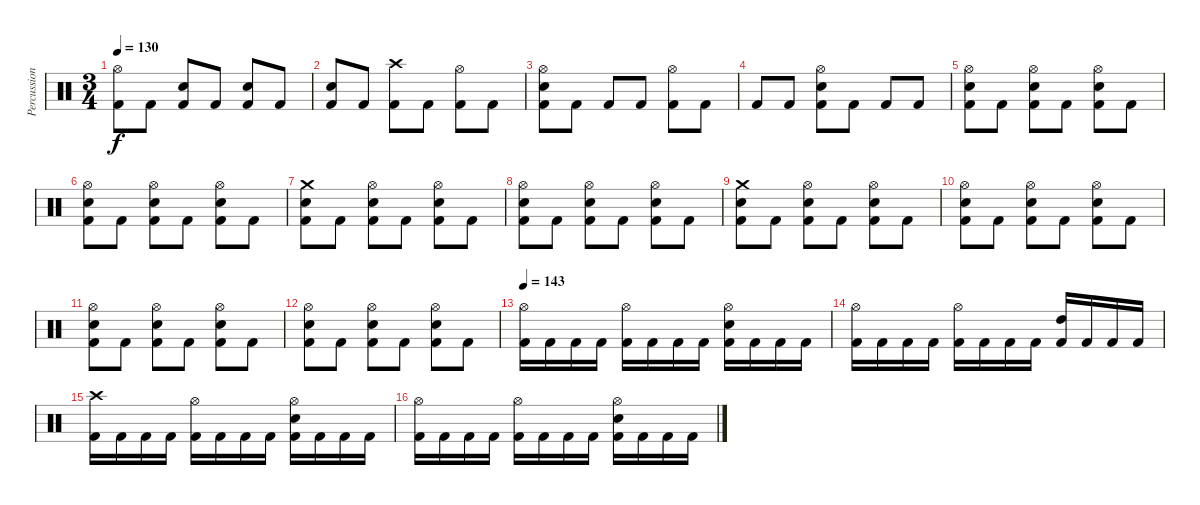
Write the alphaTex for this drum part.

\track ("Percussion" "Percussion") {instrument percussion}
\staff {score}
\articulation defaults
\ts (3 4)
\tempo 130
\clef neutral
\ks c
("Hi-Hat (open)" "Kick (hit) 2").8{dy f} "Kick (hit) 2".8 ("Snare (hit) 2" "Kick (hit) 2").8 "Kick (hit) 2".8 ("Snare (hit) 2" "Kick (hit) 2").8 "Kick (hit) 2".8 |
("Snare (hit) 2" "Kick (hit) 2").8 "Kick (hit) 2".8 ("Crash high (hit)" "Kick (hit) 2").8 "Kick (hit) 2".8 ("Hi-Hat (open)" "Kick (hit) 2").8 "Kick (hit) 2".8 |
("Hi-Hat (open)" "Snare (hit) 2" "Kick (hit) 2").8 "Kick (hit) 2".8 "Kick (hit) 2".8 "Kick (hit) 2".8 ("Hi-Hat (open)" "Kick (hit) 2").8 "Kick (hit) 2".8 |
"Kick (hit) 2".8 "Kick (hit) 2".8 ("Hi-Hat (open)" "Snare (hit) 2" "Kick (hit) 2").8 "Kick (hit) 2".8 "Kick (hit) 2".8 "Kick (hit) 2".8 |
("Hi-Hat (open)" "Snare (hit) 2" "Kick (hit) 2").8 "Kick (hit) 2".8 ("Hi-Hat (open)" "Snare (hit) 2" "Kick (hit) 2").8 "Kick (hit) 2".8 ("Hi-Hat (open)" "Snare (hit) 2" "Kick (hit) 2").8 "Kick (hit) 2".8 |
("Hi-Hat (open)" "Snare (hit) 2" "Kick (hit) 2").8 "Kick (hit) 2".8 ("Hi-Hat (open)" "Snare (hit) 2" "Kick (hit) 2").8 "Kick (hit) 2".8 ("Hi-Hat (open)" "Snare (hit) 2" "Kick (hit) 2").8 "Kick (hit) 2".8 |
("Crash medium (hit)" "Snare (hit) 2" "Kick (hit) 2").8 "Kick (hit) 2".8 ("Hi-Hat (open)" "Snare (hit) 2" "Kick (hit) 2").8 "Kick (hit) 2".8 ("Hi-Hat (open)" "Snare (hit) 2" "Kick (hit) 2").8 "Kick (hit) 2".8 |
("Hi-Hat (open)" "Snare (hit) 2" "Kick (hit) 2").8 "Kick (hit) 2".8 ("Hi-Hat (open)" "Snare (hit) 2" "Kick (hit) 2").8 "Kick (hit) 2".8 ("Hi-Hat (open)" "Snare (hit) 2" "Kick (hit) 2").8 "Kick (hit) 2".8 |
("Crash medium (hit)" "Snare (hit) 2" "Kick (hit) 2").8 "Kick (hit) 2".8 ("Hi-Hat (open)" "Snare (hit) 2" "Kick (hit) 2").8 "Kick (hit) 2".8 ("Hi-Hat (open)" "Snare (hit) 2" "Kick (hit) 2").8 "Kick (hit) 2".8 |
("Hi-Hat (open)" "Snare (hit) 2" "Kick (hit) 2").8 "Kick (hit) 2".8 ("Hi-Hat (open)" "Snare (hit) 2" "Kick (hit) 2").8 "Kick (hit) 2".8 ("Hi-Hat (open)" "Snare (hit) 2" "Kick (hit) 2").8 "Kick (hit) 2".8 |
("Hi-Hat (open)" "Snare (hit) 2" "Kick (hit) 2").8 "Kick (hit) 2".8 ("Hi-Hat (open)" "Snare (hit) 2" "Kick (hit) 2").8 "Kick (hit) 2".8 ("Hi-Hat (open)" "Snare (hit) 2" "Kick (hit) 2").8 "Kick (hit) 2".8 |
("Hi-Hat (open)" "Snare (hit) 2" "Kick (hit) 2").8 "Kick (hit) 2".8 ("Hi-Hat (open)" "Snare (hit) 2" "Kick (hit) 2").8 "Kick (hit) 2".8 ("Hi-Hat (open)" "Snare (hit) 2" "Kick (hit) 2").8 "Kick (hit) 2".8 |
\tempo 143
("Hi-Hat (open)" "Kick (hit) 2").16 "Kick (hit) 2".16 "Kick (hit) 2".16 "Kick (hit) 2".16 ("Hi-Hat (open)" "Kick (hit) 2").16 "Kick (hit) 2".16 "Kick (hit) 2".16 "Kick (hit) 2".16 ("Hi-Hat (open)" "Snare (hit) 2" "Kick (hit) 2").16 "Kick (hit) 2".16 "Kick (hit) 2".16 "Kick (hit) 2".16 |
("Hi-Hat (open)" "Kick (hit) 2").16 "Kick (hit) 2".16 "Kick (hit) 2".16 "Kick (hit) 2".16 ("Hi-Hat (open)" "Kick (hit) 2").16 "Kick (hit) 2".16 "Kick (hit) 2".16 "Kick (hit) 2".16 ("High Tom (hit)" "Kick (hit) 2").16 "Kick (hit) 2".16 "Kick (hit) 2".16 "Kick (hit) 2".16 |
("Crash high (hit)" "Kick (hit) 2").16 "Kick (hit) 2".16 "Kick (hit) 2".16 "Kick (hit) 2".16 ("Hi-Hat (open)" "Kick (hit) 2").16 "Kick (hit) 2".16 "Kick (hit) 2".16 "Kick (hit) 2".16 ("Hi-Hat (open)" "Snare (hit) 2" "Kick (hit) 2").16 "Kick (hit) 2".16 "Kick (hit) 2".16 "Kick (hit) 2".16 |
("Hi-Hat (open)" "Kick (hit) 2").16 "Kick (hit) 2".16 "Kick (hit) 2".16 "Kick (hit) 2".16 ("Hi-Hat (open)" "Kick (hit) 2").16 "Kick (hit) 2".16 "Kick (hit) 2".16 "Kick (hit) 2".16 ("Hi-Hat (open)" "Snare (hit) 2" "Kick (hit) 2").16 "Kick (hit) 2".16 "Kick (hit) 2".16 "Kick (hit) 2".16
